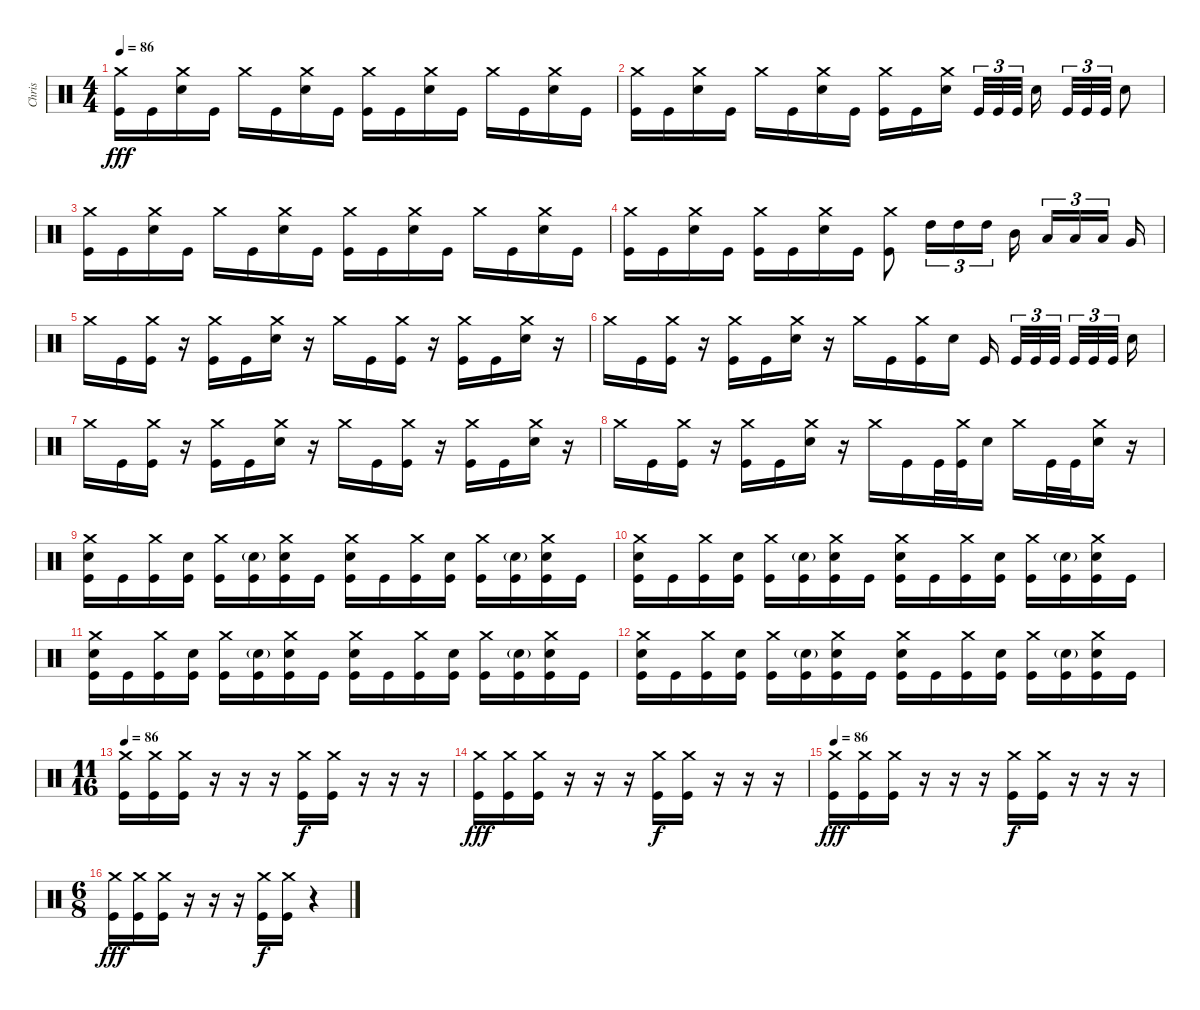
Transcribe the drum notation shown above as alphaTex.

\track ("Chris" "Chris") {instrument percussion}
\staff {score}
\articulation defaults
\ts (4 4)
\tempo 86
\clef neutral
\ks c
("Crash medium (hit)" "Kick (hit)").16{dy fff} "Kick (hit)".16 ("Crash medium (hit)" "Snare (hit) 2").16 "Kick (hit)".16 "Crash medium (hit)".16 "Kick (hit)".16 ("Crash medium (hit)" "Snare (hit) 2").16 "Kick (hit)".16 ("Crash medium (hit)" "Kick (hit)").16 "Kick (hit)".16 ("Crash medium (hit)" "Snare (hit) 2").16 "Kick (hit)".16 "Crash medium (hit)".16 "Kick (hit)".16 ("Crash medium (hit)" "Snare (hit) 2").16 "Kick (hit)".16 |
("Crash medium (hit)" "Kick (hit)").16 "Kick (hit)".16 ("Crash medium (hit)" "Snare (hit) 2").16 "Kick (hit)".16 "Crash medium (hit)".16 "Kick (hit)".16 ("Crash medium (hit)" "Snare (hit) 2").16 "Kick (hit)".16 ("Crash medium (hit)" "Kick (hit)").16 "Kick (hit)".16 ("Crash medium (hit)" "Snare (hit) 2").16{beam splitsecondary} "Kick (hit)".32{tu (3 2)} "Kick (hit)".32{tu (3 2)} "Kick (hit)".32{tu (3 2)} "Snare (hit) 2".16{beam splitsecondary} "Kick (hit)".32{tu (3 2)} "Kick (hit)".32{tu (3 2)} "Kick (hit)".32{tu (3 2)} "Snare (hit) 2".8 |
("Crash medium (hit)" "Kick (hit)").16 "Kick (hit)".16 ("Crash medium (hit)" "Snare (hit) 2").16 "Kick (hit)".16 "Crash medium (hit)".16 "Kick (hit)".16 ("Crash medium (hit)" "Snare (hit) 2").16 "Kick (hit)".16 ("Crash medium (hit)" "Kick (hit)").16 "Kick (hit)".16 ("Crash medium (hit)" "Snare (hit) 2").16 "Kick (hit)".16 "Crash medium (hit)".16 "Kick (hit)".16 ("Crash medium (hit)" "Snare (hit) 2").16 "Kick (hit)".16 |
("Crash medium (hit)" "Kick (hit)").16 "Kick (hit)".16 ("Crash medium (hit)" "Snare (hit) 2").16 "Kick (hit)".16 ("Crash medium (hit)" "Kick (hit)").16 "Kick (hit)".16 ("Crash medium (hit)" "Snare (hit) 2").16 "Kick (hit)".16 ("Crash medium (hit)" "Kick (hit)").8 "High Tom (hit)".16{tu (3 2)} "High Tom (hit)".16{tu (3 2)} "High Tom (hit)".16{tu (3 2)} "Mid Tom (hit)".16{beam splitsecondary} "Low Tom (hit)".16{tu (3 2)} "Low Tom (hit)".16{tu (3 2)} "Low Tom (hit)".16{tu (3 2) beam splitsecondary} "Very Low Tom (hit)".16 |
"Crash medium (hit)".16 "Kick (hit)".16 ("Crash medium (hit)" "Kick (hit)").16 r.16 ("Crash medium (hit)" "Kick (hit)").16 "Kick (hit)".16 ("Crash medium (hit)" "Snare (hit) 2").16 r.16 "Crash medium (hit)".16 "Kick (hit)".16 ("Crash medium (hit)" "Kick (hit)").16 r.16 ("Crash medium (hit)" "Kick (hit)").16 "Kick (hit)".16 ("Crash medium (hit)" "Snare (hit) 2").16 r.16 |
"Crash medium (hit)".16 "Kick (hit)".16 ("Crash medium (hit)" "Kick (hit)").16 r.16 ("Crash medium (hit)" "Kick (hit)").16 "Kick (hit)".16 ("Crash medium (hit)" "Snare (hit) 2").16 r.16 "Crash medium (hit)".16 "Kick (hit)".16 ("Crash medium (hit)" "Kick (hit)").16 "Snare (hit) 2".16 "Kick (hit)".16{beam splitsecondary} "Kick (hit)".32{tu (3 2)} "Kick (hit)".32{tu (3 2)} "Kick (hit)".32{tu (3 2) beam splitsecondary} "Kick (hit)".32{tu (3 2)} "Kick (hit)".32{tu (3 2)} "Kick (hit)".32{tu (3 2) beam splitsecondary} "Snare (hit) 2".16 |
"Crash medium (hit)".16 "Kick (hit)".16 ("Crash medium (hit)" "Kick (hit)").16 r.16 ("Crash medium (hit)" "Kick (hit)").16 "Kick (hit)".16 ("Crash medium (hit)" "Snare (hit) 2").16 r.16 "Crash medium (hit)".16 "Kick (hit)".16 ("Crash medium (hit)" "Kick (hit)").16 r.16 ("Crash medium (hit)" "Kick (hit)").16 "Kick (hit)".16 ("Crash medium (hit)" "Snare (hit) 2").16 r.16 |
"Crash medium (hit)".16 "Kick (hit)".16 ("Crash medium (hit)" "Kick (hit)").16 r.16 ("Crash medium (hit)" "Kick (hit)").16 "Kick (hit)".16 ("Crash medium (hit)" "Snare (hit) 2").16 r.16 "Crash medium (hit)".16 "Kick (hit)".16 "Kick (hit)".32 ("Crash medium (hit)" "Kick (hit)").32 "Snare (hit) 2".16 "Crash medium (hit)".16 "Kick (hit)".32 "Kick (hit)".32 ("Crash medium (hit)" "Snare (hit) 2").16 r.16 |
("Crash medium (hit)" "Snare (hit) 2" "Kick (hit)").16 "Kick (hit)".16 ("Crash medium (hit)" "Kick (hit)").16 ("Snare (hit) 2" "Kick (hit)").16 ("Crash medium (hit)" "Kick (hit)").16 ("Snare (hit) 2"{g} "Kick (hit)").16 ("Crash medium (hit)" "Snare (hit) 2" "Kick (hit)").16 "Kick (hit)".16 ("Crash medium (hit)" "Snare (hit) 2" "Kick (hit)").16 "Kick (hit)".16 ("Crash medium (hit)" "Kick (hit)").16 ("Snare (hit) 2" "Kick (hit)").16 ("Crash medium (hit)" "Kick (hit)").16 ("Snare (hit) 2"{g} "Kick (hit)").16 ("Crash medium (hit)" "Snare (hit) 2" "Kick (hit)").16 "Kick (hit)".16 |
("Crash medium (hit)" "Snare (hit) 2" "Kick (hit)").16 "Kick (hit)".16 ("Crash medium (hit)" "Kick (hit)").16 ("Snare (hit) 2" "Kick (hit)").16 ("Crash medium (hit)" "Kick (hit)").16 ("Snare (hit) 2"{g} "Kick (hit)").16 ("Crash medium (hit)" "Snare (hit) 2" "Kick (hit)").16 "Kick (hit)".16 ("Crash medium (hit)" "Snare (hit) 2" "Kick (hit)").16 "Kick (hit)".16 ("Crash medium (hit)" "Kick (hit)").16 ("Snare (hit) 2" "Kick (hit)").16 ("Crash medium (hit)" "Kick (hit)").16 ("Snare (hit) 2"{g} "Kick (hit)").16 ("Crash medium (hit)" "Snare (hit) 2" "Kick (hit)").16 "Kick (hit)".16 |
("Crash medium (hit)" "Snare (hit) 2" "Kick (hit)").16 "Kick (hit)".16 ("Crash medium (hit)" "Kick (hit)").16 ("Snare (hit) 2" "Kick (hit)").16 ("Crash medium (hit)" "Kick (hit)").16 ("Snare (hit) 2"{g} "Kick (hit)").16 ("Crash medium (hit)" "Snare (hit) 2" "Kick (hit)").16 "Kick (hit)".16 ("Crash medium (hit)" "Snare (hit) 2" "Kick (hit)").16 "Kick (hit)".16 ("Crash medium (hit)" "Kick (hit)").16 ("Snare (hit) 2" "Kick (hit)").16 ("Crash medium (hit)" "Kick (hit)").16 ("Snare (hit) 2"{g} "Kick (hit)").16 ("Crash medium (hit)" "Snare (hit) 2" "Kick (hit)").16 "Kick (hit)".16 |
("Crash medium (hit)" "Snare (hit) 2" "Kick (hit)").16 "Kick (hit)".16 ("Crash medium (hit)" "Kick (hit)").16 ("Snare (hit) 2" "Kick (hit)").16 ("Crash medium (hit)" "Kick (hit)").16 ("Snare (hit) 2"{g} "Kick (hit)").16 ("Crash medium (hit)" "Snare (hit) 2" "Kick (hit)").16 "Kick (hit)".16 ("Crash medium (hit)" "Snare (hit) 2" "Kick (hit)").16 "Kick (hit)".16 ("Crash medium (hit)" "Kick (hit)").16 ("Snare (hit) 2" "Kick (hit)").16 ("Crash medium (hit)" "Kick (hit)").16 ("Snare (hit) 2"{g} "Kick (hit)").16 ("Crash medium (hit)" "Snare (hit) 2" "Kick (hit)").16 "Kick (hit)".16 |
\ts (11 16)
\tempo 86
("Crash medium (hit)" "Kick (hit)").16 ("Crash medium (hit)" "Kick (hit)").16 ("Crash medium (hit)" "Kick (hit)").16 r.16 r.16 r.16 ("Crash medium (hit)" "Kick (hit)").16{dy f} ("Crash medium (hit)" "Kick (hit)").16 r.16 r.16 r.16 |
("Crash medium (hit)" "Kick (hit)").16{dy fff} ("Crash medium (hit)" "Kick (hit)").16 ("Crash medium (hit)" "Kick (hit)").16 r.16 r.16 r.16 ("Crash medium (hit)" "Kick (hit)").16{dy f} ("Crash medium (hit)" "Kick (hit)").16 r.16 r.16 r.16 |
\tempo 86
("Crash medium (hit)" "Kick (hit)").16{dy fff} ("Crash medium (hit)" "Kick (hit)").16 ("Crash medium (hit)" "Kick (hit)").16 r.16 r.16 r.16 ("Crash medium (hit)" "Kick (hit)").16{dy f} ("Crash medium (hit)" "Kick (hit)").16 r.16 r.16 r.16 |
\ts (6 8)
("Crash medium (hit)" "Kick (hit)").16{dy fff} ("Crash medium (hit)" "Kick (hit)").16 ("Crash medium (hit)" "Kick (hit)").16 r.16 r.16 r.16 ("Crash medium (hit)" "Kick (hit)").16{dy f} ("Crash medium (hit)" "Kick (hit)").16 r.4
